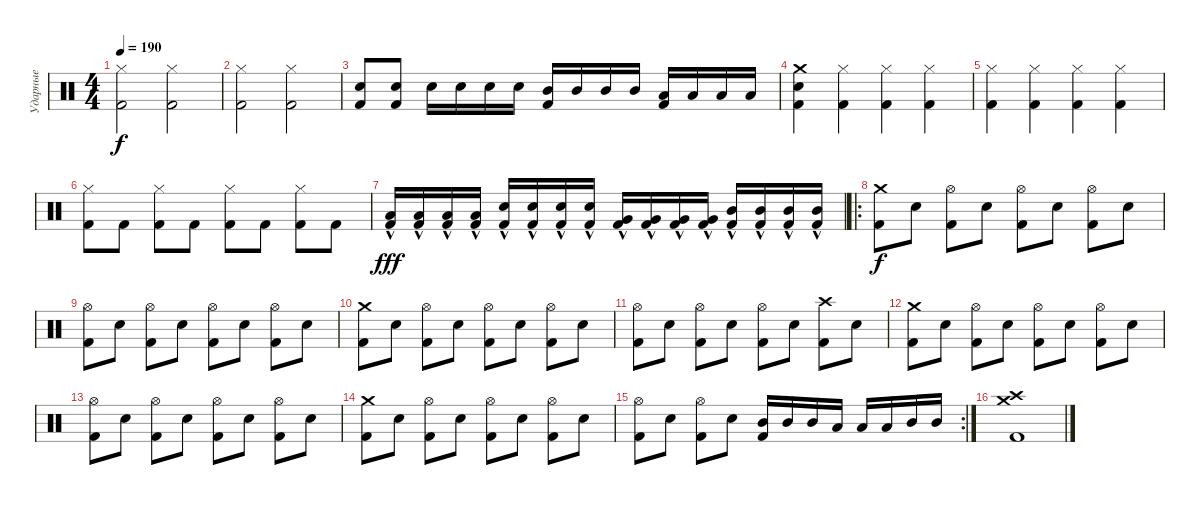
\track ("Ударные" "Ударные") {instrument percussion}
\staff {score}
\articulation defaults
\ts (4 4)
\tempo 190
\clef neutral
\ks c
("Hi-Hat (closed)" "Kick (hit) 2").2{dy f} ("Hi-Hat (closed)" "Kick (hit) 2").2 |
("Hi-Hat (closed)" "Kick (hit) 2").2 ("Hi-Hat (closed)" "Kick (hit) 2").2 |
("Electric Snare (hit)" "Kick (hit) 2").8 ("Electric Snare (hit)" "Kick (hit) 2").8 "Electric Snare (hit)".16 "Electric Snare (hit)".16 "Electric Snare (hit)".16 "Electric Snare (hit)".16 ("Mid Tom (hit)" "Kick (hit) 2").16 "Mid Tom (hit)".16 "Mid Tom (hit)".16 "Mid Tom (hit)".16 ("Low Tom (hit)" "Kick (hit) 2").16 "Low Tom (hit)".16 "Low Tom (hit)".16 "Low Tom (hit)".16 |
("Crash medium (hit)" "Electric Snare (hit)" "Kick (hit) 2").4 ("Hi-Hat (closed)" "Kick (hit) 2").4 ("Hi-Hat (closed)" "Kick (hit) 2").4 ("Hi-Hat (closed)" "Kick (hit) 2").4 |
("Hi-Hat (closed)" "Kick (hit) 2").4 ("Hi-Hat (closed)" "Kick (hit) 2").4 ("Hi-Hat (closed)" "Kick (hit) 2").4 ("Hi-Hat (closed)" "Kick (hit) 2").4 |
("Hi-Hat (closed)" "Kick (hit) 2").8 "Kick (hit) 2".8 ("Hi-Hat (closed)" "Kick (hit) 2").8 "Kick (hit) 2".8 ("Hi-Hat (closed)" "Kick (hit) 2").8 "Kick (hit) 2".8 ("Hi-Hat (closed)" "Kick (hit) 2").8 "Kick (hit) 2".8 |
("Low Tom (hit)"{hac} "Kick (hit) 2"{hac}).16{dy fff} ("Low Tom (hit)"{hac} "Kick (hit) 2"{hac}).16 ("Low Tom (hit)"{hac} "Kick (hit) 2"{hac}).16 ("Low Tom (hit)"{hac} "Kick (hit) 2"{hac}).16 ("Electric Snare (hit)"{hac} "Kick (hit) 2"{hac}).16 ("Electric Snare (hit)"{hac} "Kick (hit) 2"{hac}).16 ("Electric Snare (hit)"{hac} "Kick (hit) 2"{hac}).16 ("Electric Snare (hit)"{hac} "Kick (hit) 2"{hac}).16 ("Very Low Tom (hit)"{hac} "Kick (hit) 2"{hac}).16 ("Very Low Tom (hit)"{hac} "Kick (hit) 2"{hac}).16 ("Very Low Tom (hit)"{hac} "Kick (hit) 2"{hac}).16 ("Very Low Tom (hit)"{hac} "Kick (hit) 2"{hac}).16 ("Mid Tom (hit)"{hac} "Kick (hit) 2"{hac}).16 ("Mid Tom (hit)"{hac} "Kick (hit) 2"{hac}).16 ("Mid Tom (hit)"{hac} "Kick (hit) 2"{hac}).16 ("Mid Tom (hit)"{hac} "Kick (hit) 2"{hac}).16 |
\ro
("Crash medium (hit)" "Kick (hit) 2").8{dy f} "Electric Snare (hit)".8 ("Hi-Hat (open)" "Kick (hit) 2").8 "Electric Snare (hit)".8 ("Hi-Hat (open)" "Kick (hit) 2").8 "Electric Snare (hit)".8 ("Hi-Hat (open)" "Kick (hit) 2").8 "Electric Snare (hit)".8 |
("Hi-Hat (open)" "Kick (hit) 2").8 "Electric Snare (hit)".8 ("Hi-Hat (open)" "Kick (hit) 2").8 "Electric Snare (hit)".8 ("Hi-Hat (open)" "Kick (hit) 2").8 "Electric Snare (hit)".8 ("Hi-Hat (open)" "Kick (hit) 2").8 "Electric Snare (hit)".8 |
("Crash medium (hit)" "Kick (hit) 2").8 "Electric Snare (hit)".8 ("Hi-Hat (open)" "Kick (hit) 2").8 "Electric Snare (hit)".8 ("Hi-Hat (open)" "Kick (hit) 2").8 "Electric Snare (hit)".8 ("Hi-Hat (open)" "Kick (hit) 2").8 "Electric Snare (hit)".8 |
("Hi-Hat (open)" "Kick (hit) 2").8 "Electric Snare (hit)".8 ("Hi-Hat (open)" "Kick (hit) 2").8 "Electric Snare (hit)".8 ("Hi-Hat (open)" "Kick (hit) 2").8 "Electric Snare (hit)".8 ("Crash high (hit)" "Kick (hit) 2").8 "Electric Snare (hit)".8 |
("Crash medium (hit)" "Kick (hit) 2").8 "Electric Snare (hit)".8 ("Hi-Hat (open)" "Kick (hit) 2").8 "Electric Snare (hit)".8 ("Hi-Hat (open)" "Kick (hit) 2").8 "Electric Snare (hit)".8 ("Hi-Hat (open)" "Kick (hit) 2").8 "Electric Snare (hit)".8 |
("Hi-Hat (open)" "Kick (hit) 2").8 "Electric Snare (hit)".8 ("Hi-Hat (open)" "Kick (hit) 2").8 "Electric Snare (hit)".8 ("Hi-Hat (open)" "Kick (hit) 2").8 "Electric Snare (hit)".8 ("Hi-Hat (open)" "Kick (hit) 2").8 "Electric Snare (hit)".8 |
("Crash medium (hit)" "Kick (hit) 2").8 "Electric Snare (hit)".8 ("Hi-Hat (open)" "Kick (hit) 2").8 "Electric Snare (hit)".8 ("Hi-Hat (open)" "Kick (hit) 2").8 "Electric Snare (hit)".8 ("Hi-Hat (open)" "Kick (hit) 2").8 "Electric Snare (hit)".8 |
\rc 2
("Hi-Hat (open)" "Kick (hit) 2").8 "Electric Snare (hit)".8 ("Hi-Hat (open)" "Kick (hit) 2").8 "Electric Snare (hit)".8 ("Mid Tom (hit)" "Kick (hit) 2").16 "Mid Tom (hit)".16 "Mid Tom (hit)".16 "Low Tom (hit)".16 "Low Tom (hit)".16 "Low Tom (hit)".16 "Mid Tom (hit)".16 "Mid Tom (hit)".16 |
("Crash medium (hit)" "Crash high (hit)" "Kick (hit) 2").1
